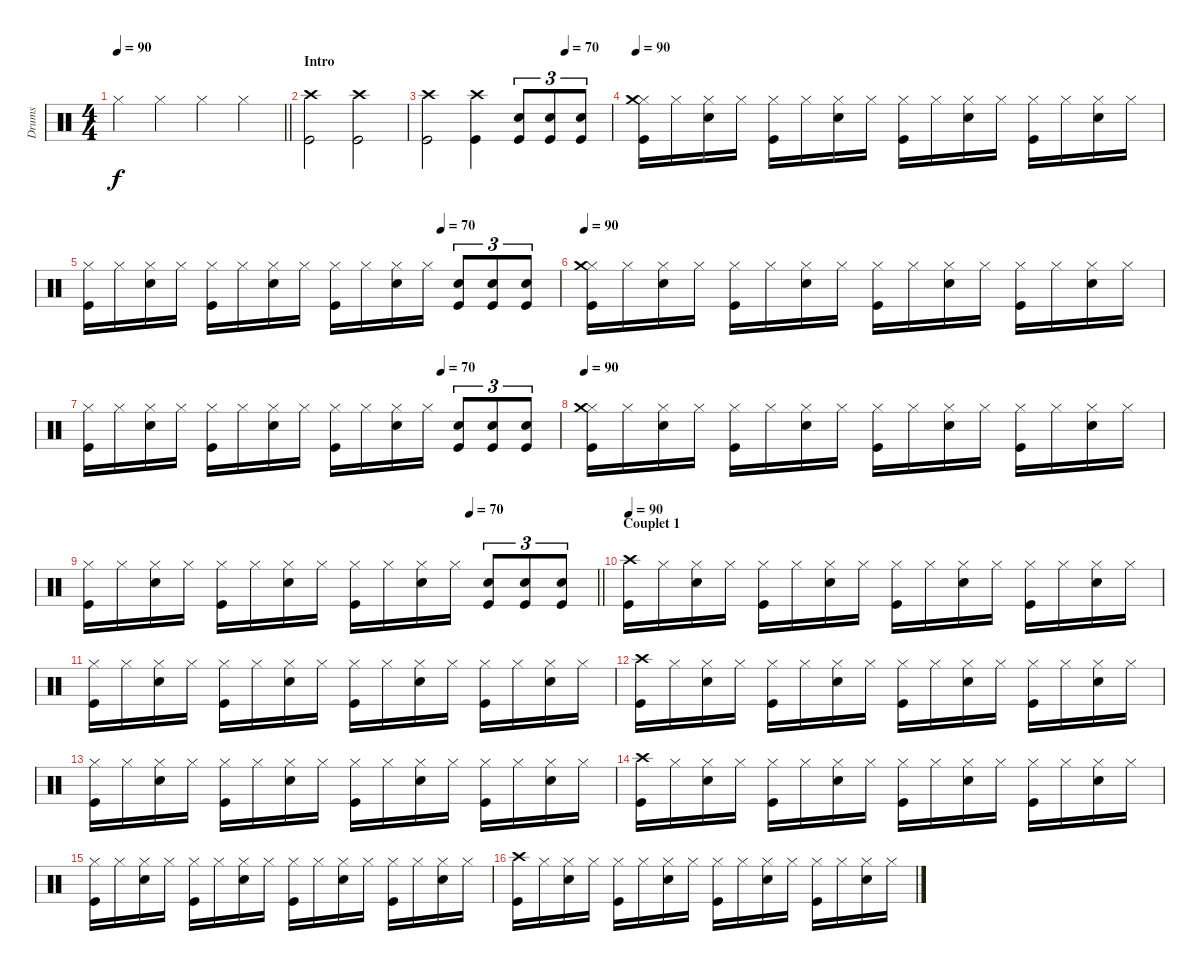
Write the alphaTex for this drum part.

\track ("Drums" "Drums") {instrument percussion}
\staff {score}
\articulation defaults
\ts (4 4)
\tempo 90
\clef neutral
\barLineRight lightlight
\ks c "Hi-Hat (closed)".4{dy f} "Hi-Hat (closed)".4 "Hi-Hat (closed)".4 "Hi-Hat (closed)".4
|
\section ("" "Intro")
("Crash high (hit)" "Kick (hit)").2 ("Crash high (hit)" "Kick (hit)").2 |
\tempo (70 0.75)
("Crash high (hit)" "Kick (hit)").2 ("Crash high (hit)" "Kick (hit)").4 ("Snare (hit) 2" "Kick (hit)").8{tu (3 2)} ("Snare (hit) 2" "Kick (hit)").8{tu (3 2)} ("Snare (hit) 2" "Kick (hit)").8{tu (3 2)} |
\tempo 90
("Hi-Hat (closed)" "Crash medium (hit)" "Kick (hit)").16 "Hi-Hat (closed)".16 ("Hi-Hat (closed)" "Snare (hit) 2").16 "Hi-Hat (closed)".16 ("Hi-Hat (closed)" "Kick (hit)").16 "Hi-Hat (closed)".16 ("Hi-Hat (closed)" "Snare (hit) 2").16 "Hi-Hat (closed)".16 ("Hi-Hat (closed)" "Kick (hit)").16 "Hi-Hat (closed)".16 ("Hi-Hat (closed)" "Snare (hit) 2").16 "Hi-Hat (closed)".16 ("Hi-Hat (closed)" "Kick (hit)").16 "Hi-Hat (closed)".16 ("Hi-Hat (closed)" "Snare (hit) 2").16 "Hi-Hat (closed)".16 |
\tempo (70 0.75)
("Hi-Hat (closed)" "Kick (hit)").16 "Hi-Hat (closed)".16 ("Hi-Hat (closed)" "Snare (hit) 2").16 "Hi-Hat (closed)".16 ("Hi-Hat (closed)" "Kick (hit)").16 "Hi-Hat (closed)".16 ("Hi-Hat (closed)" "Snare (hit) 2").16 "Hi-Hat (closed)".16 ("Hi-Hat (closed)" "Kick (hit)").16 "Hi-Hat (closed)".16 ("Hi-Hat (closed)" "Snare (hit) 2").16 "Hi-Hat (closed)".16 ("Snare (hit) 2" "Kick (hit)").8{tu (3 2)} ("Snare (hit) 2" "Kick (hit)").8{tu (3 2)} ("Snare (hit) 2" "Kick (hit)").8{tu (3 2)} |
\tempo 90
("Hi-Hat (closed)" "Crash medium (hit)" "Kick (hit)").16 "Hi-Hat (closed)".16 ("Hi-Hat (closed)" "Snare (hit) 2").16 "Hi-Hat (closed)".16 ("Hi-Hat (closed)" "Kick (hit)").16 "Hi-Hat (closed)".16 ("Hi-Hat (closed)" "Snare (hit) 2").16 "Hi-Hat (closed)".16 ("Hi-Hat (closed)" "Kick (hit)").16 "Hi-Hat (closed)".16 ("Hi-Hat (closed)" "Snare (hit) 2").16 "Hi-Hat (closed)".16 ("Hi-Hat (closed)" "Kick (hit)").16 "Hi-Hat (closed)".16 ("Hi-Hat (closed)" "Snare (hit) 2").16 "Hi-Hat (closed)".16 |
\tempo (70 0.75)
("Hi-Hat (closed)" "Kick (hit)").16 "Hi-Hat (closed)".16 ("Hi-Hat (closed)" "Snare (hit) 2").16 "Hi-Hat (closed)".16 ("Hi-Hat (closed)" "Kick (hit)").16 "Hi-Hat (closed)".16 ("Hi-Hat (closed)" "Snare (hit) 2").16 "Hi-Hat (closed)".16 ("Hi-Hat (closed)" "Kick (hit)").16 "Hi-Hat (closed)".16 ("Hi-Hat (closed)" "Snare (hit) 2").16 "Hi-Hat (closed)".16 ("Snare (hit) 2" "Kick (hit)").8{tu (3 2)} ("Snare (hit) 2" "Kick (hit)").8{tu (3 2)} ("Snare (hit) 2" "Kick (hit)").8{tu (3 2)} |
\tempo 90
("Hi-Hat (closed)" "Crash medium (hit)" "Kick (hit)").16 "Hi-Hat (closed)".16 ("Hi-Hat (closed)" "Snare (hit) 2").16 "Hi-Hat (closed)".16 ("Hi-Hat (closed)" "Kick (hit)").16 "Hi-Hat (closed)".16 ("Hi-Hat (closed)" "Snare (hit) 2").16 "Hi-Hat (closed)".16 ("Hi-Hat (closed)" "Kick (hit)").16 "Hi-Hat (closed)".16 ("Hi-Hat (closed)" "Snare (hit) 2").16 "Hi-Hat (closed)".16 ("Hi-Hat (closed)" "Kick (hit)").16 "Hi-Hat (closed)".16 ("Hi-Hat (closed)" "Snare (hit) 2").16 "Hi-Hat (closed)".16 |
\tempo (70 0.75)
\barLineRight lightlight
("Hi-Hat (closed)" "Kick (hit)").16 "Hi-Hat (closed)".16 ("Hi-Hat (closed)" "Snare (hit) 2").16 "Hi-Hat (closed)".16 ("Hi-Hat (closed)" "Kick (hit)").16 "Hi-Hat (closed)".16 ("Hi-Hat (closed)" "Snare (hit) 2").16 "Hi-Hat (closed)".16 ("Hi-Hat (closed)" "Kick (hit)").16 "Hi-Hat (closed)".16 ("Hi-Hat (closed)" "Snare (hit) 2").16 "Hi-Hat (closed)".16 ("Snare (hit) 2" "Kick (hit)").8{tu (3 2)} ("Snare (hit) 2" "Kick (hit)").8{tu (3 2)} ("Snare (hit) 2" "Kick (hit)").8{tu (3 2)} |
\section ("" "Couplet 1")
\tempo 90
("Crash high (hit)" "Kick (hit)").16 "Hi-Hat (closed)".16 ("Hi-Hat (closed)" "Snare (hit) 2").16 "Hi-Hat (closed)".16 ("Hi-Hat (closed)" "Kick (hit)").16 "Hi-Hat (closed)".16 ("Hi-Hat (closed)" "Snare (hit) 2").16 "Hi-Hat (closed)".16 ("Hi-Hat (closed)" "Kick (hit)").16 "Hi-Hat (closed)".16 ("Hi-Hat (closed)" "Snare (hit) 2").16 "Hi-Hat (closed)".16 ("Hi-Hat (closed)" "Kick (hit)").16 "Hi-Hat (closed)".16 ("Hi-Hat (closed)" "Snare (hit) 2").16 "Hi-Hat (closed)".16 |
("Hi-Hat (closed)" "Kick (hit)").16 "Hi-Hat (closed)".16 ("Hi-Hat (closed)" "Snare (hit) 2").16 "Hi-Hat (closed)".16 ("Hi-Hat (closed)" "Kick (hit)").16 "Hi-Hat (closed)".16 ("Hi-Hat (closed)" "Snare (hit) 2").16 "Hi-Hat (closed)".16 ("Hi-Hat (closed)" "Kick (hit)").16 "Hi-Hat (closed)".16 ("Hi-Hat (closed)" "Snare (hit) 2").16 "Hi-Hat (closed)".16 ("Hi-Hat (closed)" "Kick (hit)").16 "Hi-Hat (closed)".16 ("Hi-Hat (closed)" "Snare (hit) 2").16 "Hi-Hat (closed)".16 |
("Crash high (hit)" "Kick (hit)").16 "Hi-Hat (closed)".16 ("Hi-Hat (closed)" "Snare (hit) 2").16 "Hi-Hat (closed)".16 ("Hi-Hat (closed)" "Kick (hit)").16 "Hi-Hat (closed)".16 ("Hi-Hat (closed)" "Snare (hit) 2").16 "Hi-Hat (closed)".16 ("Hi-Hat (closed)" "Kick (hit)").16 "Hi-Hat (closed)".16 ("Hi-Hat (closed)" "Snare (hit) 2").16 "Hi-Hat (closed)".16 ("Hi-Hat (closed)" "Kick (hit)").16 "Hi-Hat (closed)".16 ("Hi-Hat (closed)" "Snare (hit) 2").16 "Hi-Hat (closed)".16 |
("Hi-Hat (closed)" "Kick (hit)").16 "Hi-Hat (closed)".16 ("Hi-Hat (closed)" "Snare (hit) 2").16 "Hi-Hat (closed)".16 ("Hi-Hat (closed)" "Kick (hit)").16 "Hi-Hat (closed)".16 ("Hi-Hat (closed)" "Snare (hit) 2").16 "Hi-Hat (closed)".16 ("Hi-Hat (closed)" "Kick (hit)").16 "Hi-Hat (closed)".16 ("Hi-Hat (closed)" "Snare (hit) 2").16 "Hi-Hat (closed)".16 ("Hi-Hat (closed)" "Kick (hit)").16 "Hi-Hat (closed)".16 ("Hi-Hat (closed)" "Snare (hit) 2").16 "Hi-Hat (closed)".16 |
("Crash high (hit)" "Kick (hit)").16 "Hi-Hat (closed)".16 ("Hi-Hat (closed)" "Snare (hit) 2").16 "Hi-Hat (closed)".16 ("Hi-Hat (closed)" "Kick (hit)").16 "Hi-Hat (closed)".16 ("Hi-Hat (closed)" "Snare (hit) 2").16 "Hi-Hat (closed)".16 ("Hi-Hat (closed)" "Kick (hit)").16 "Hi-Hat (closed)".16 ("Hi-Hat (closed)" "Snare (hit) 2").16 "Hi-Hat (closed)".16 ("Hi-Hat (closed)" "Kick (hit)").16 "Hi-Hat (closed)".16 ("Hi-Hat (closed)" "Snare (hit) 2").16 "Hi-Hat (closed)".16 |
("Hi-Hat (closed)" "Kick (hit)").16 "Hi-Hat (closed)".16 ("Hi-Hat (closed)" "Snare (hit) 2").16 "Hi-Hat (closed)".16 ("Hi-Hat (closed)" "Kick (hit)").16 "Hi-Hat (closed)".16 ("Hi-Hat (closed)" "Snare (hit) 2").16 "Hi-Hat (closed)".16 ("Hi-Hat (closed)" "Kick (hit)").16 "Hi-Hat (closed)".16 ("Hi-Hat (closed)" "Snare (hit) 2").16 "Hi-Hat (closed)".16 ("Hi-Hat (closed)" "Kick (hit)").16 "Hi-Hat (closed)".16 ("Hi-Hat (closed)" "Snare (hit) 2").16 "Hi-Hat (closed)".16 |
("Crash high (hit)" "Kick (hit)").16 "Hi-Hat (closed)".16 ("Hi-Hat (closed)" "Snare (hit) 2").16 "Hi-Hat (closed)".16 ("Hi-Hat (closed)" "Kick (hit)").16 "Hi-Hat (closed)".16 ("Hi-Hat (closed)" "Snare (hit) 2").16 "Hi-Hat (closed)".16 ("Hi-Hat (closed)" "Kick (hit)").16 "Hi-Hat (closed)".16 ("Hi-Hat (closed)" "Snare (hit) 2").16 "Hi-Hat (closed)".16 ("Hi-Hat (closed)" "Kick (hit)").16 "Hi-Hat (closed)".16 ("Hi-Hat (closed)" "Snare (hit) 2").16 "Hi-Hat (closed)".16
